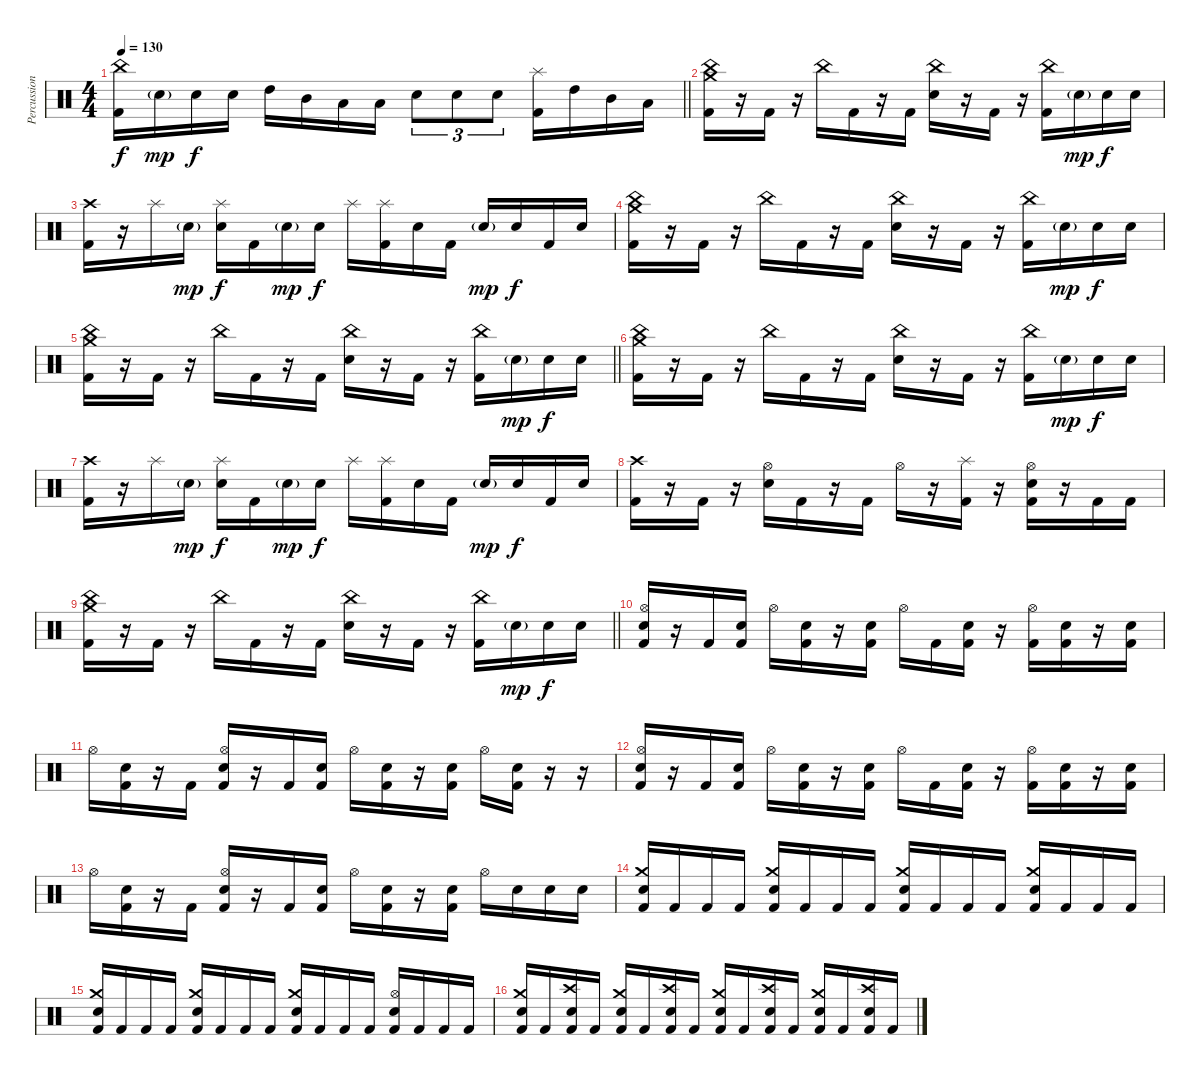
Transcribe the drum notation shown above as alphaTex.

\track ("Percussion" "Percussion") {instrument percussion}
\staff {score}
\articulation defaults
\ts (4 4)
\tempo 130
\clef neutral
\barLineRight lightlight
\ks c
("China (hit)" "Kick (hit) 2").16{dy f} "Electric Snare (hit)"{g}.16{dy mp} "Electric Snare (hit)".16{dy f} "Electric Snare (hit)".16 "High Tom (hit)".16 "Mid Tom (hit)".16 "Low Tom (hit)".16 "Low Tom (hit)".16 "Electric Snare (hit)".8{tu (3 2)} "Electric Snare (hit)".8{tu (3 2)} "Electric Snare (hit)".8{tu (3 2)} ("Splash (hit)" "Kick (hit) 2").16 "High Tom (hit)".16 "Mid Tom (hit)".16 "Low Tom (hit)".16 |
("Crash medium (hit)" "China (hit)" "Kick (hit) 2").16 r.16 "Kick (hit) 2".16 r.16 "China (hit)".16 "Kick (hit) 2".16 r.16 "Kick (hit) 2".16 ("China (hit)" "Electric Snare (hit)").16 r.16 "Kick (hit) 2".16 r.16 ("China (hit)" "Kick (hit) 2").16 "Electric Snare (hit)"{g}.16{dy mp} "Electric Snare (hit)".16{dy f} "Electric Snare (hit)".16 |
("Crash high (hit)" "Kick (hit) 2").16 r.16 "Splash (hit)".16 "Electric Snare (hit)"{g}.16{dy mp} ("Splash (hit)" "Electric Snare (hit)").16{dy f} "Kick (hit) 2".16 "Electric Snare (hit)"{g}.16{dy mp} "Electric Snare (hit)".16{dy f} "Splash (hit)".16 ("Splash (hit)" "Kick (hit) 2").16 "Electric Snare (hit)".16 "Kick (hit) 2".16 "Electric Snare (hit)"{g}.16{dy mp} "Electric Snare (hit)".16{dy f} "Kick (hit) 2".16 "Electric Snare (hit)".16 |
("Crash medium (hit)" "China (hit)" "Kick (hit) 2").16 r.16 "Kick (hit) 2".16 r.16 "China (hit)".16 "Kick (hit) 2".16 r.16 "Kick (hit) 2".16 ("China (hit)" "Electric Snare (hit)").16 r.16 "Kick (hit) 2".16 r.16 ("China (hit)" "Kick (hit) 2").16 "Electric Snare (hit)"{g}.16{dy mp} "Electric Snare (hit)".16{dy f} "Electric Snare (hit)".16 |
\barLineRight lightlight
("Crash medium (hit)" "China (hit)" "Kick (hit) 2").16 r.16 "Kick (hit) 2".16 r.16 "China (hit)".16 "Kick (hit) 2".16 r.16 "Kick (hit) 2".16 ("China (hit)" "Electric Snare (hit)").16 r.16 "Kick (hit) 2".16 r.16 ("China (hit)" "Kick (hit) 2").16 "Electric Snare (hit)"{g}.16{dy mp} "Electric Snare (hit)".16{dy f} "Electric Snare (hit)".16 |
("Crash medium (hit)" "China (hit)" "Kick (hit) 2").16 r.16 "Kick (hit) 2".16 r.16 "China (hit)".16 "Kick (hit) 2".16 r.16 "Kick (hit) 2".16 ("China (hit)" "Electric Snare (hit)").16 r.16 "Kick (hit) 2".16 r.16 ("China (hit)" "Kick (hit) 2").16 "Electric Snare (hit)"{g}.16{dy mp} "Electric Snare (hit)".16{dy f} "Electric Snare (hit)".16 |
("Crash high (hit)" "Kick (hit) 2").16 r.16 "Splash (hit)".16 "Electric Snare (hit)"{g}.16{dy mp} ("Splash (hit)" "Electric Snare (hit)").16{dy f} "Kick (hit) 2".16 "Electric Snare (hit)"{g}.16{dy mp} "Electric Snare (hit)".16{dy f} "Splash (hit)".16 ("Splash (hit)" "Kick (hit) 2").16 "Electric Snare (hit)".16 "Kick (hit) 2".16 "Electric Snare (hit)"{g}.16{dy mp} "Electric Snare (hit)".16{dy f} "Kick (hit) 2".16 "Electric Snare (hit)".16 |
("Crash high (hit)" "Kick (hit) 2").16 r.16 "Kick (hit) 2".16 r.16 ("Hi-Hat (open)" "Electric Snare (hit)").16 "Kick (hit) 2".16 r.16 "Kick (hit) 2".16 "Hi-Hat (open)".16 r.16 ("Splash (hit)" "Kick (hit) 2").16 r.16 ("Hi-Hat (open)" "Electric Snare (hit)" "Kick (hit) 2").16 r.16 "Kick (hit) 2".16 "Kick (hit) 2".16 |
\barLineRight lightlight
("Crash medium (hit)" "China (hit)" "Kick (hit) 2").16 r.16 "Kick (hit) 2".16 r.16 "China (hit)".16 "Kick (hit) 2".16 r.16 "Kick (hit) 2".16 ("China (hit)" "Electric Snare (hit)").16 r.16 "Kick (hit) 2".16 r.16 ("China (hit)" "Kick (hit) 2").16 "Electric Snare (hit)"{g}.16{dy mp} "Electric Snare (hit)".16{dy f} "Electric Snare (hit)".16 |
("Hi-Hat (open)" "Snare (hit) 2" "Kick (hit) 2").16 r.16 "Kick (hit) 2".16 ("Snare (hit) 2" "Kick (hit) 2").16 "Hi-Hat (open)".16 ("Snare (hit) 2" "Kick (hit) 2").16 r.16 ("Snare (hit) 2" "Kick (hit) 2").16 "Hi-Hat (open)".16 "Kick (hit) 2".16 ("Snare (hit) 2" "Kick (hit) 2").16 r.16 ("Hi-Hat (open)" "Kick (hit) 2").16 ("Snare (hit) 2" "Kick (hit) 2").16 r.16 ("Snare (hit) 2" "Kick (hit) 2").16 |
"Hi-Hat (open)".16 ("Snare (hit) 2" "Kick (hit) 2").16 r.16 "Kick (hit) 2".16 ("Hi-Hat (open)" "Snare (hit) 2" "Kick (hit) 2").16 r.16 "Kick (hit) 2".16 ("Snare (hit) 2" "Kick (hit) 2").16 "Hi-Hat (open)".16 ("Snare (hit) 2" "Kick (hit) 2").16 r.16 ("Snare (hit) 2" "Kick (hit) 2").16 "Hi-Hat (open)".16 ("Snare (hit) 2" "Kick (hit) 2").16 r.16 r.16 |
("Hi-Hat (open)" "Snare (hit) 2" "Kick (hit) 2").16 r.16 "Kick (hit) 2".16 ("Snare (hit) 2" "Kick (hit) 2").16 "Hi-Hat (open)".16 ("Snare (hit) 2" "Kick (hit) 2").16 r.16 ("Snare (hit) 2" "Kick (hit) 2").16 "Hi-Hat (open)".16 "Kick (hit) 2".16 ("Snare (hit) 2" "Kick (hit) 2").16 r.16 ("Hi-Hat (open)" "Kick (hit) 2").16 ("Snare (hit) 2" "Kick (hit) 2").16 r.16 ("Snare (hit) 2" "Kick (hit) 2").16 |
"Hi-Hat (open)".16 ("Snare (hit) 2" "Kick (hit) 2").16 r.16 "Kick (hit) 2".16 ("Hi-Hat (open)" "Snare (hit) 2" "Kick (hit) 2").16 r.16 "Kick (hit) 2".16 ("Snare (hit) 2" "Kick (hit) 2").16 "Hi-Hat (open)".16 ("Snare (hit) 2" "Kick (hit) 2").16 r.16 ("Snare (hit) 2" "Kick (hit) 2").16 "Hi-Hat (open)".16 "Snare (hit) 2".16 "Snare (hit) 2".16 "Snare (hit) 2".16 |
("Crash medium (hit)" "Snare (hit) 2" "Kick (hit) 2").16 "Kick (hit) 2".16 "Kick (hit) 2".16 "Kick (hit) 2".16 ("Crash medium (hit)" "Snare (hit) 2" "Kick (hit) 2").16 "Kick (hit) 2".16 "Kick (hit) 2".16 "Kick (hit) 2".16 ("Crash medium (hit)" "Snare (hit) 2" "Kick (hit) 2").16 "Kick (hit) 2".16 "Kick (hit) 2".16 "Kick (hit) 2".16 ("Crash medium (hit)" "Snare (hit) 2" "Kick (hit) 2").16 "Kick (hit) 2".16 "Kick (hit) 2".16 "Kick (hit) 2".16 |
("Crash medium (hit)" "Snare (hit) 2" "Kick (hit) 2").16 "Kick (hit) 2".16 "Kick (hit) 2".16 "Kick (hit) 2".16 ("Crash medium (hit)" "Snare (hit) 2" "Kick (hit) 2").16 "Kick (hit) 2".16 "Kick (hit) 2".16 "Kick (hit) 2".16 ("Crash medium (hit)" "Snare (hit) 2" "Kick (hit) 2").16 "Kick (hit) 2".16 "Kick (hit) 2".16 "Kick (hit) 2".16 ("Hi-Hat (open)" "Snare (hit) 2" "Kick (hit) 2").16 "Kick (hit) 2".16 "Kick (hit) 2".16 "Kick (hit) 2".16 |
("Crash medium (hit)" "Snare (hit) 2" "Kick (hit) 2").16 "Kick (hit) 2".16 ("Crash high (hit)" "Snare (hit) 2" "Kick (hit) 2").16 "Kick (hit) 2".16 ("Crash medium (hit)" "Snare (hit) 2" "Kick (hit) 2").16 "Kick (hit) 2".16 ("Crash high (hit)" "Snare (hit) 2" "Kick (hit) 2").16 "Kick (hit) 2".16 ("Crash medium (hit)" "Snare (hit) 2" "Kick (hit) 2").16 "Kick (hit) 2".16 ("Crash high (hit)" "Snare (hit) 2" "Kick (hit) 2").16 "Kick (hit) 2".16 ("Crash medium (hit)" "Snare (hit) 2" "Kick (hit) 2").16 "Kick (hit) 2".16 ("Crash high (hit)" "Snare (hit) 2" "Kick (hit) 2").16 "Kick (hit) 2".16
